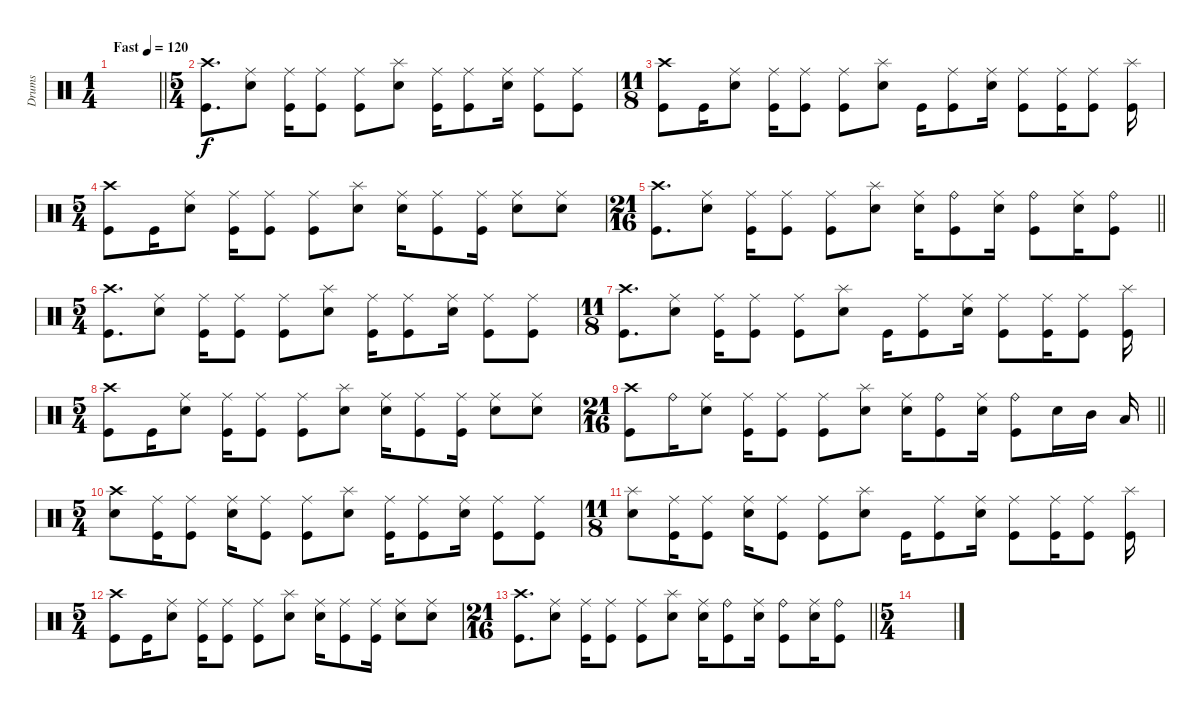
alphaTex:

\track ("Drums" "Drums") {instrument percussion}
\staff
\articulation defaults
\ts (1 4)
\tempo (120 "Fast")
\clef neutral
\barLineRight lightlight
\ks c
|
\ts (5 4)
("Crash high (hit)" "Kick (hit)").8{d} ("Ride (middle)" "Electric Snare (hit)").8 ("Ride (middle)" "Kick (hit)").16 ("Ride (middle)" "Kick (hit)").8 ("Ride (middle)" "Kick (hit)").8 ("Splash (hit)" "Electric Snare (hit)").8 ("Ride (middle)" "Kick (hit)").16 ("Ride (middle)" "Kick (hit)").8 ("Ride (middle)" "Electric Snare (hit)").16 ("Ride (middle)" "Kick (hit)").8 ("Ride (middle)" "Kick (hit)").8 |
\ts (11 8)
("Crash high (hit)" "Kick (hit)").8 "Kick (hit)".16 ("Ride (middle)" "Electric Snare (hit)").8 ("Ride (middle)" "Kick (hit)").16 ("Ride (middle)" "Kick (hit)").8 ("Ride (middle)" "Kick (hit)").8 ("Splash (hit)" "Electric Snare (hit)").8 "Kick (hit)".16 ("Ride (middle)" "Kick (hit)").8 ("Ride (middle)" "Electric Snare (hit)").16 ("Ride (middle)" "Kick (hit)").8 ("Ride (middle)" "Kick (hit)").16 ("Ride (middle)" "Kick (hit)").8 ("Splash (hit)" "Kick (hit)").16 |
\ts (5 4)
("Crash high (hit)" "Kick (hit)").8 "Kick (hit)".16 ("Ride (middle)" "Electric Snare (hit)").8 ("Ride (middle)" "Kick (hit)").16 ("Ride (middle)" "Kick (hit)").8 ("Ride (middle)" "Kick (hit)").8 ("Splash (hit)" "Electric Snare (hit)").8 ("Ride (middle)" "Electric Snare (hit)").16 ("Ride (middle)" "Kick (hit)").8 ("Ride (middle)" "Kick (hit)").16 ("Ride (middle)" "Electric Snare (hit)").8 ("Ride (middle)" "Electric Snare (hit)").8 |
\ts (21 16)
\barLineRight lightlight
("Crash high (hit)" "Kick (hit)").8{d} ("Ride (middle)" "Electric Snare (hit)").8 ("Ride (middle)" "Kick (hit)").16 ("Ride (middle)" "Kick (hit)").8 ("Ride (middle)" "Kick (hit)").8 ("Splash (hit)" "Electric Snare (hit)").8 ("Ride (middle)" "Electric Snare (hit)").16 ("Ride (bell)" "Kick (hit)").8 ("Ride (middle)" "Electric Snare (hit)").16 ("Ride (bell)" "Kick (hit)").8 ("Ride (middle)" "Electric Snare (hit)").16 ("Ride (bell)" "Kick (hit)").8 |
\ts (5 4)
("Crash high (hit)" "Kick (hit)").8{d} ("Ride (middle)" "Electric Snare (hit)").8 ("Ride (middle)" "Kick (hit)").16 ("Ride (middle)" "Kick (hit)").8 ("Ride (middle)" "Kick (hit)").8 ("Splash (hit)" "Electric Snare (hit)").8 ("Ride (middle)" "Kick (hit)").16 ("Ride (middle)" "Kick (hit)").8 ("Ride (middle)" "Electric Snare (hit)").16 ("Ride (middle)" "Kick (hit)").8 ("Ride (middle)" "Kick (hit)").8 |
\ts (11 8)
("Crash high (hit)" "Kick (hit)").8{d} ("Ride (middle)" "Electric Snare (hit)").8 ("Ride (middle)" "Kick (hit)").16 ("Ride (middle)" "Kick (hit)").8 ("Ride (middle)" "Kick (hit)").8 ("Splash (hit)" "Electric Snare (hit)").8 "Kick (hit)".16 ("Ride (middle)" "Kick (hit)").8 ("Ride (middle)" "Electric Snare (hit)").16 ("Ride (middle)" "Kick (hit)").8 ("Ride (middle)" "Kick (hit)").16 ("Ride (middle)" "Kick (hit)").8 ("Splash (hit)" "Kick (hit)").16 |
\ts (5 4)
("Crash high (hit)" "Kick (hit)").8 "Kick (hit)".16 ("Ride (middle)" "Electric Snare (hit)").8 ("Ride (middle)" "Kick (hit)").16 ("Ride (middle)" "Kick (hit)").8 ("Ride (middle)" "Kick (hit)").8 ("Splash (hit)" "Electric Snare (hit)").8 ("Ride (middle)" "Electric Snare (hit)").16 ("Ride (middle)" "Kick (hit)").8 ("Ride (middle)" "Kick (hit)").16 ("Ride (middle)" "Electric Snare (hit)").8 ("Ride (middle)" "Electric Snare (hit)").8 |
\ts (21 16)
\barLineRight lightlight
("Crash high (hit)" "Kick (hit)").8 "Ride (bell)".16 ("Ride (middle)" "Electric Snare (hit)").8 ("Ride (middle)" "Kick (hit)").16 ("Ride (middle)" "Kick (hit)").8 ("Ride (middle)" "Kick (hit)").8 ("Splash (hit)" "Electric Snare (hit)").8 ("Ride (middle)" "Electric Snare (hit)").16 ("Ride (bell)" "Kick (hit)").8 ("Ride (middle)" "Electric Snare (hit)").16 ("Ride (bell)" "Kick (hit)").8 "Electric Snare (hit)".16 "Mid Tom (hit)".16 "Low Tom (hit)".16 |
\ts (5 4)
("Crash high (hit)" "Electric Snare (hit)").8 ("Ride (middle)" "Kick (hit)").16 ("Ride (middle)" "Kick (hit)").8 ("Ride (middle)" "Electric Snare (hit)").16 ("Ride (middle)" "Kick (hit)").8 ("Ride (middle)" "Kick (hit)").8 ("Splash (hit)" "Electric Snare (hit)").8 ("Ride (middle)" "Kick (hit)").16 ("Ride (middle)" "Kick (hit)").8 ("Ride (middle)" "Electric Snare (hit)").16 ("Ride (middle)" "Kick (hit)").8 ("Ride (middle)" "Kick (hit)").8 |
\ts (11 8)
("Splash (hit)" "Electric Snare (hit)").8 ("Ride (middle)" "Kick (hit)").16 ("Ride (middle)" "Kick (hit)").8 ("Ride (middle)" "Electric Snare (hit)").16 ("Ride (middle)" "Kick (hit)").8 ("Ride (middle)" "Kick (hit)").8 ("Splash (hit)" "Electric Snare (hit)").8 "Kick (hit)".16 ("Ride (middle)" "Kick (hit)").8 ("Ride (middle)" "Electric Snare (hit)").16 ("Ride (middle)" "Kick (hit)").8 ("Ride (middle)" "Kick (hit)").16 ("Ride (middle)" "Kick (hit)").8 ("Splash (hit)" "Kick (hit)").16 |
\ts (5 4)
("Crash high (hit)" "Kick (hit)").8 "Kick (hit)".16 ("Ride (middle)" "Electric Snare (hit)").8 ("Ride (middle)" "Kick (hit)").16 ("Ride (middle)" "Kick (hit)").8 ("Ride (middle)" "Kick (hit)").8 ("Splash (hit)" "Electric Snare (hit)").8 ("Ride (middle)" "Electric Snare (hit)").16 ("Ride (middle)" "Kick (hit)").8 ("Ride (middle)" "Kick (hit)").16 ("Ride (middle)" "Electric Snare (hit)").8 ("Ride (middle)" "Electric Snare (hit)").8 |
\ts (21 16)
\barLineRight lightlight
("Crash high (hit)" "Kick (hit)").8{d} ("Ride (middle)" "Electric Snare (hit)").8 ("Ride (middle)" "Kick (hit)").16 ("Ride (middle)" "Kick (hit)").8 ("Ride (middle)" "Kick (hit)").8 ("Splash (hit)" "Electric Snare (hit)").8 ("Ride (middle)" "Electric Snare (hit)").16 ("Ride (bell)" "Kick (hit)").8 ("Ride (middle)" "Electric Snare (hit)").16 ("Ride (bell)" "Kick (hit)").8 ("Ride (middle)" "Electric Snare (hit)").16 ("Ride (bell)" "Kick (hit)").8 |
\ts (5 4)
